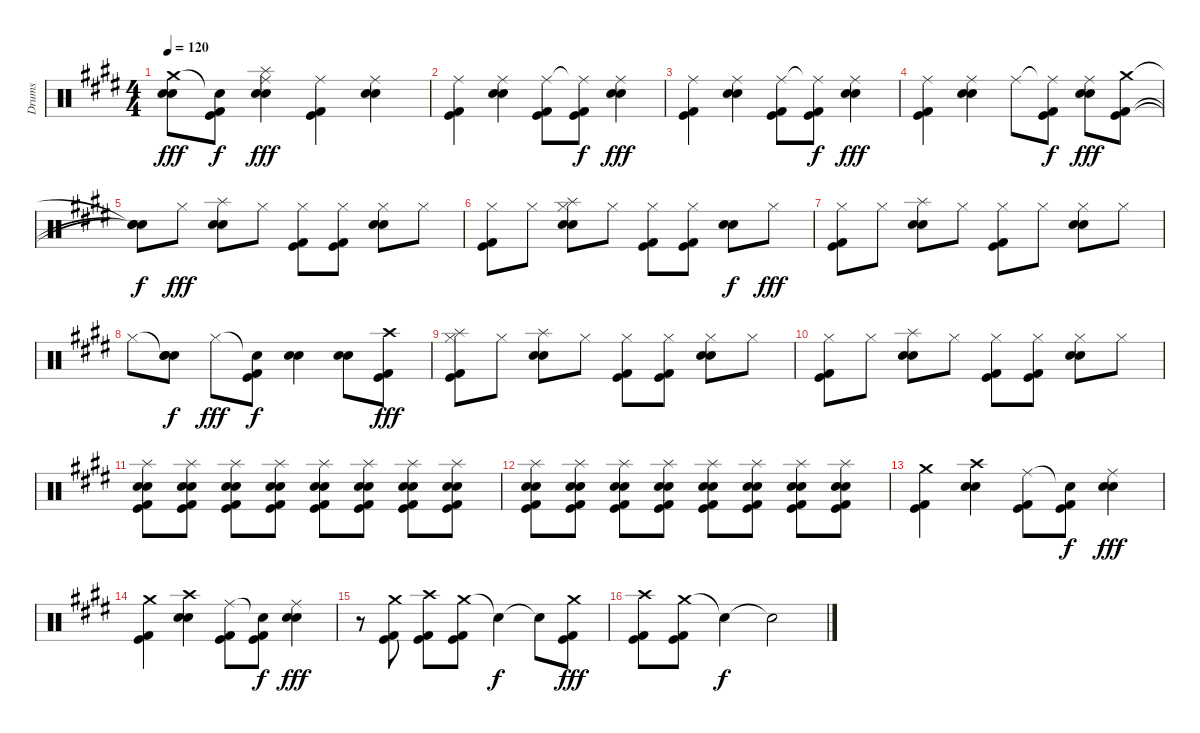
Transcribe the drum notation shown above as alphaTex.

\track ("Drums" "Drums") {instrument percussion}
\staff {score}
\articulation defaults
\ts (4 4)
\tempo 120
\clef neutral
\ks e
("Crash medium (hit)" "Snare (hit)"{t} "Snare (hit)"{t}).8{dy fff} ("Snare (hit)"{t} "Kick (hit)" "Kick (hit) 2").8{dy f} ("Ride (middle)" "Electric Snare (hit)" "Snare (hit) 2" "Splash (hit)").4{dy fff} ("Ride (middle)" "Kick (hit)" "Kick (hit) 2").4 ("Ride (middle)" "Electric Snare (hit)" "Snare (hit) 2").4 |
("Ride (middle)" "Kick (hit)" "Kick (hit) 2").4 ("Ride (middle)" "Electric Snare (hit)" "Snare (hit) 2").4 ("Ride (middle)" "Kick (hit)" "Kick (hit) 2").8 ("Ride (middle)"{t} "Kick (hit)" "Kick (hit) 2").8{dy f} ("Ride (middle)" "Electric Snare (hit)" "Snare (hit) 2").4{dy fff} |
("Ride (middle)" "Kick (hit)" "Kick (hit) 2").4 ("Ride (middle)" "Electric Snare (hit)" "Snare (hit) 2").4 ("Ride (middle)" "Kick (hit)" "Kick (hit) 2").8 ("Ride (middle)"{t} "Kick (hit)" "Kick (hit) 2").8{dy f} ("Ride (middle)" "Electric Snare (hit)" "Snare (hit) 2").4{dy fff} |
("Ride (middle)" "Kick (hit)" "Kick (hit) 2").4 ("Ride (middle)" "Electric Snare (hit)" "Snare (hit) 2").4 "Ride (middle)".8 ("Ride (middle)"{t} "Kick (hit)" "Kick (hit) 2").8{dy f} ("Ride (middle)" "Electric Snare (hit)" "Snare (hit) 2").8{dy fff} ("Crash medium (hit)" "Kick (hit)" "Kick (hit) 2").8 |
("Snare (hit)"{t} "Snare (hit)"{t} "Snare (hit)"{t}).8{dy f} "Hi-Hat (closed)".8{dy fff} ("Splash (hit)" "Electric Snare (hit)" "Snare (hit) 2").8 "Hi-Hat (closed)".8 ("Hi-Hat (closed)" "Kick (hit)" "Kick (hit) 2").8 ("Hi-Hat (closed)" "Kick (hit)" "Kick (hit) 2").8 ("Hi-Hat (closed)" "Electric Snare (hit)" "Snare (hit) 2").8 "Hi-Hat (closed)".8 |
("Hi-Hat (closed)" "Kick (hit)" "Kick (hit) 2").8 "Hi-Hat (closed)".8 ("Splash (hit)" "Electric Snare (hit)" "Snare (hit) 2" "Hi-Hat (closed)").8 "Hi-Hat (closed)".8 ("Hi-Hat (closed)" "Kick (hit)" "Kick (hit) 2").8 ("Hi-Hat (closed)" "Kick (hit)" "Kick (hit) 2").8 ("Electric Snare (hit)" "Snare (hit) 2").8{dy f} "Hi-Hat (closed)".8{dy fff} |
("Hi-Hat (closed)" "Kick (hit)" "Kick (hit) 2").8 "Hi-Hat (closed)".8 ("Splash (hit)" "Electric Snare (hit)" "Snare (hit) 2").8 "Hi-Hat (closed)".8 ("Hi-Hat (closed)" "Kick (hit)" "Kick (hit) 2").8 "Hi-Hat (closed)".8 ("Hi-Hat (closed)" "Electric Snare (hit)" "Snare (hit) 2").8 "Hi-Hat (closed)".8 |
"Hi-Hat (closed)".8 ("Snare (hit) 2"{t} "Electric Snare (hit)" "Snare (hit) 2").8{dy f} "Hi-Hat (closed)".8{dy fff} ("Snare (hit)"{t} "Kick (hit)" "Kick (hit) 2").8{dy f} ("Electric Snare (hit)" "Snare (hit) 2").4 ("Electric Snare (hit)" "Snare (hit) 2").8 ("Crash high (hit)" "Kick (hit)" "Kick (hit) 2").8{dy fff} |
("Hi-Hat (closed)" "Splash (hit)" "Kick (hit)" "Kick (hit) 2").8 "Hi-Hat (closed)".8 ("Splash (hit)" "Electric Snare (hit)" "Snare (hit) 2").8 "Hi-Hat (closed)".8 ("Hi-Hat (closed)" "Kick (hit)" "Kick (hit) 2").8 ("Hi-Hat (closed)" "Kick (hit)" "Kick (hit) 2").8 ("Hi-Hat (closed)" "Electric Snare (hit)" "Snare (hit) 2").8 "Hi-Hat (closed)".8 |
("Hi-Hat (closed)" "Kick (hit)" "Kick (hit) 2").8 "Hi-Hat (closed)".8 ("Splash (hit)" "Electric Snare (hit)" "Snare (hit) 2").8 "Hi-Hat (closed)".8 ("Hi-Hat (closed)" "Kick (hit)" "Kick (hit) 2").8 ("Hi-Hat (closed)" "Kick (hit)" "Kick (hit) 2").8 ("Hi-Hat (closed)" "Electric Snare (hit)" "Snare (hit) 2").8 "Hi-Hat (closed)".8 |
("Splash (hit)" "Electric Snare (hit)" "Snare (hit) 2" "Kick (hit)" "Kick (hit) 2").8 ("Splash (hit)" "Electric Snare (hit)" "Snare (hit) 2" "Kick (hit)" "Kick (hit) 2").8 ("Splash (hit)" "Electric Snare (hit)" "Snare (hit) 2" "Kick (hit)" "Kick (hit) 2").8 ("Splash (hit)" "Electric Snare (hit)" "Snare (hit) 2" "Kick (hit)" "Kick (hit) 2").8 ("Splash (hit)" "Electric Snare (hit)" "Snare (hit) 2" "Kick (hit)" "Kick (hit) 2").8 ("Splash (hit)" "Electric Snare (hit)" "Snare (hit) 2" "Kick (hit)" "Kick (hit) 2").8 ("Splash (hit)" "Electric Snare (hit)" "Snare (hit) 2" "Kick (hit)" "Kick (hit) 2").8 ("Splash (hit)" "Electric Snare (hit)" "Snare (hit) 2" "Kick (hit)" "Kick (hit) 2").8 |
("Splash (hit)" "Electric Snare (hit)" "Snare (hit) 2" "Kick (hit)" "Kick (hit) 2").8 ("Splash (hit)" "Electric Snare (hit)" "Snare (hit) 2" "Kick (hit)" "Kick (hit) 2").8 ("Splash (hit)" "Electric Snare (hit)" "Snare (hit) 2" "Kick (hit)" "Kick (hit) 2").8 ("Splash (hit)" "Electric Snare (hit)" "Snare (hit) 2" "Kick (hit)" "Kick (hit) 2").8 ("Splash (hit)" "Electric Snare (hit)" "Snare (hit) 2" "Kick (hit)" "Kick (hit) 2").8 ("Splash (hit)" "Electric Snare (hit)" "Snare (hit) 2" "Kick (hit)" "Kick (hit) 2").8 ("Splash (hit)" "Electric Snare (hit)" "Snare (hit) 2" "Kick (hit)" "Kick (hit) 2").8 ("Splash (hit)" "Electric Snare (hit)" "Snare (hit) 2" "Kick (hit)" "Kick (hit) 2").8 |
("Crash medium (hit)" "Kick (hit)" "Kick (hit) 2").4 ("Crash high (hit)" "Electric Snare (hit)" "Snare (hit) 2").4 ("Ride (middle)" "Kick (hit)" "Kick (hit) 2").8 ("Snare (hit)"{t} "Kick (hit)" "Kick (hit) 2").8{dy f} ("Ride (middle)" "Electric Snare (hit)" "Snare (hit) 2").4{dy fff} |
("Crash medium (hit)" "Kick (hit)" "Kick (hit) 2").4 ("Crash high (hit)" "Electric Snare (hit)" "Snare (hit) 2").4 ("Ride (middle)" "Kick (hit)" "Kick (hit) 2").8 ("Snare (hit)"{t} "Kick (hit)" "Kick (hit) 2").8{dy f} ("Ride (middle)" "Electric Snare (hit)" "Snare (hit) 2").4{dy fff} |
r.8 ("Crash medium (hit)" "Kick (hit)" "Kick (hit) 2").8 ("Crash high (hit)" "Kick (hit)" "Kick (hit) 2").8 ("Crash medium (hit)" "Kick (hit)" "Kick (hit) 2").8 "Snare (hit)"{t}.4{dy f} "Snare (hit)"{t}.8 ("Crash medium (hit)" "Kick (hit)" "Kick (hit) 2").8{dy fff} |
("Crash high (hit)" "Kick (hit)" "Kick (hit) 2").8 ("Crash medium (hit)" "Kick (hit)" "Kick (hit) 2").8 "Snare (hit)"{t}.4{dy f} "Snare (hit)"{t}.2
